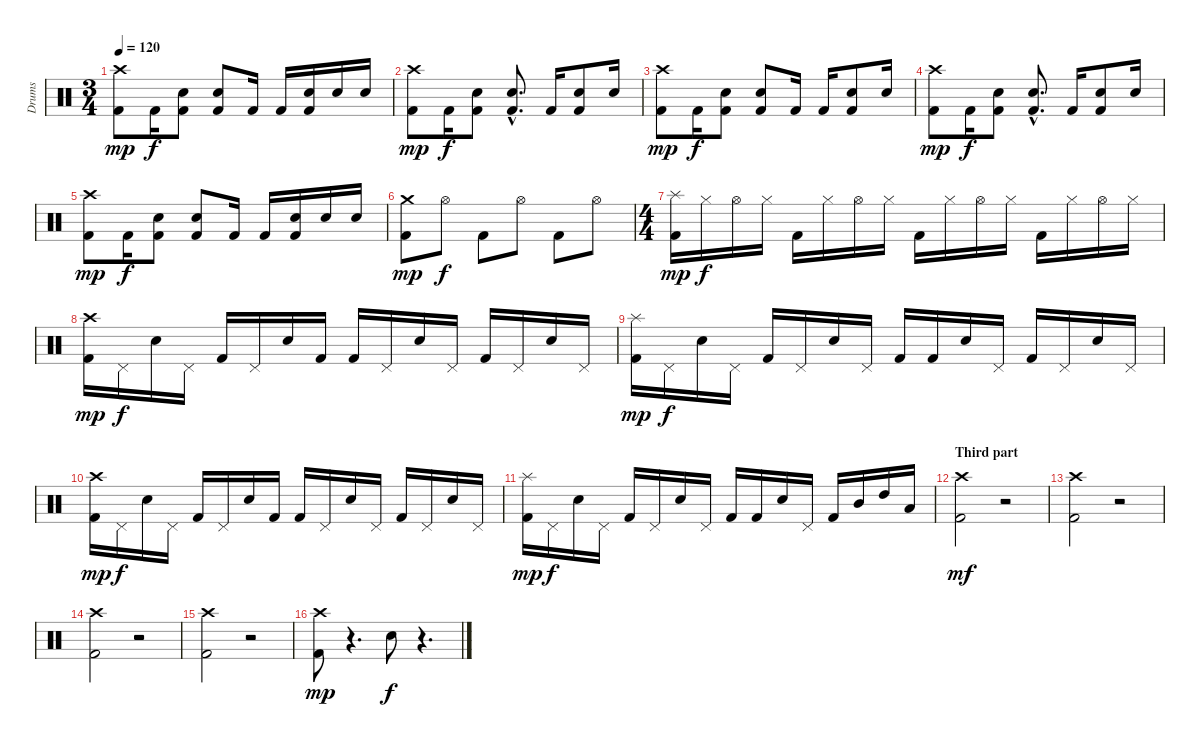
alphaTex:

\track ("Drums" "Drums") {instrument percussion}
\staff {score}
\articulation defaults
\ts (3 4)
\tempo 120
\clef neutral
\ks c
("Kick (hit) 2" "Crash high (hit)").8{dy mp} "Kick (hit) 2".16{dy f} ("Kick (hit) 2" "Electric Snare (hit)").8 ("Kick (hit) 2" "Electric Snare (hit)").8 "Kick (hit) 2".16 "Kick (hit) 2".16 ("Kick (hit) 2" "Electric Snare (hit)").16 "Electric Snare (hit)".16 "Electric Snare (hit)".16 |
("Kick (hit) 2" "Crash high (hit)").8{dy mp} "Kick (hit) 2".16{dy f} ("Kick (hit) 2" "Electric Snare (hit)").8 ("Kick (hit) 2"{hac} "Electric Snare (hit)"{hac}).8{d} "Kick (hit) 2".16 ("Kick (hit) 2" "Electric Snare (hit)").8 "Electric Snare (hit)".16 |
("Kick (hit) 2" "Crash high (hit)").8{dy mp} "Kick (hit) 2".16{dy f} ("Kick (hit) 2" "Electric Snare (hit)").8 ("Kick (hit) 2" "Electric Snare (hit)").8 "Kick (hit) 2".16 "Kick (hit) 2".16 ("Kick (hit) 2" "Electric Snare (hit)").8 "Electric Snare (hit)".16 |
("Kick (hit) 2" "Crash high (hit)").8{dy mp} "Kick (hit) 2".16{dy f} ("Kick (hit) 2" "Electric Snare (hit)").8 ("Kick (hit) 2"{hac} "Electric Snare (hit)"{hac}).8{d} "Kick (hit) 2".16 ("Kick (hit) 2" "Electric Snare (hit)").8 "Electric Snare (hit)".16 |
("Kick (hit) 2" "Crash high (hit)").8{dy mp} "Kick (hit) 2".16{dy f} ("Kick (hit) 2" "Electric Snare (hit)").8 ("Kick (hit) 2" "Electric Snare (hit)").8 "Kick (hit) 2".16 "Kick (hit) 2".16 ("Kick (hit) 2" "Electric Snare (hit)").16 "Electric Snare (hit)".16 "Electric Snare (hit)".16 |
("Kick (hit) 2" "Crash medium (hit)").8{dy mp} "Hi-Hat (open)".8{dy f} "Kick (hit) 2".8 "Hi-Hat (open)".8 "Kick (hit) 2".8 "Hi-Hat (open)".8 |
\ts (4 4)
("Kick (hit) 2" "Splash (hit)").16{dy mp} "Hi-Hat (closed)".16{dy f} "Hi-Hat (open)".16 "Hi-Hat (closed)".16 "Kick (hit) 2".16 "Hi-Hat (closed)".16 "Hi-Hat (open)".16 "Hi-Hat (closed)".16 "Kick (hit) 2".16 "Hi-Hat (closed)".16 "Hi-Hat (open)".16 "Hi-Hat (closed)".16 "Kick (hit) 2".16 "Hi-Hat (closed)".16 "Hi-Hat (open)".16 "Hi-Hat (closed)".16 |
("Kick (hit) 2" "Crash high (hit)").16{dy mp} "Pedal Hi-Hat (hit)".16{dy f} "Electric Snare (hit)".16 "Pedal Hi-Hat (hit)".16 "Kick (hit) 2".16 "Pedal Hi-Hat (hit)".16 "Electric Snare (hit)".16 "Kick (hit) 2".16 "Kick (hit) 2".16 "Pedal Hi-Hat (hit)".16 "Electric Snare (hit)".16 "Pedal Hi-Hat (hit)".16 "Kick (hit) 2".16 "Pedal Hi-Hat (hit)".16 "Electric Snare (hit)".16 "Pedal Hi-Hat (hit)".16 |
("Kick (hit) 2" "Splash (hit)").16{dy mp} "Pedal Hi-Hat (hit)".16{dy f} "Electric Snare (hit)".16 "Pedal Hi-Hat (hit)".16 "Kick (hit) 2".16 "Pedal Hi-Hat (hit)".16 "Electric Snare (hit)".16 "Pedal Hi-Hat (hit)".16 "Kick (hit) 2".16 "Kick (hit) 2".16 "Electric Snare (hit)".16 "Pedal Hi-Hat (hit)".16 "Kick (hit) 2".16 "Pedal Hi-Hat (hit)".16 "Electric Snare (hit)".16 "Pedal Hi-Hat (hit)".16 |
("Kick (hit) 2" "Crash high (hit)").16{dy mp} "Pedal Hi-Hat (hit)".16{dy f} "Electric Snare (hit)".16 "Pedal Hi-Hat (hit)".16 "Kick (hit) 2".16 "Pedal Hi-Hat (hit)".16 "Electric Snare (hit)".16 "Kick (hit) 2".16 "Kick (hit) 2".16 "Pedal Hi-Hat (hit)".16 "Electric Snare (hit)".16 "Pedal Hi-Hat (hit)".16 "Kick (hit) 2".16 "Pedal Hi-Hat (hit)".16 "Electric Snare (hit)".16 "Pedal Hi-Hat (hit)".16 |
("Kick (hit) 2" "Splash (hit)").16{dy mp} "Pedal Hi-Hat (hit)".16{dy f} "Electric Snare (hit)".16 "Pedal Hi-Hat (hit)".16 "Kick (hit) 2".16 "Pedal Hi-Hat (hit)".16 "Electric Snare (hit)".16 "Pedal Hi-Hat (hit)".16 "Kick (hit) 2".16 "Kick (hit) 2".16 "Electric Snare (hit)".16 "Pedal Hi-Hat (hit)".16 "Kick (hit) 2".16 "Mid Tom (hit)".16 "High Tom (hit)".16 "Low Tom (hit)".16 |
\section ("" "Third part")
("Kick (hit) 2" "Crash high (hit)").2{dy mf} r.2 |
("Kick (hit) 2" "Crash high (hit)").2 r.2 |
("Kick (hit) 2" "Crash high (hit)").2 r.2 |
("Kick (hit) 2" "Crash high (hit)").2 r.2 |
("Kick (hit) 2" "Crash high (hit)").8{dy mp} r.4{d} "Electric Snare (hit)".8{dy f} r.4{d}
